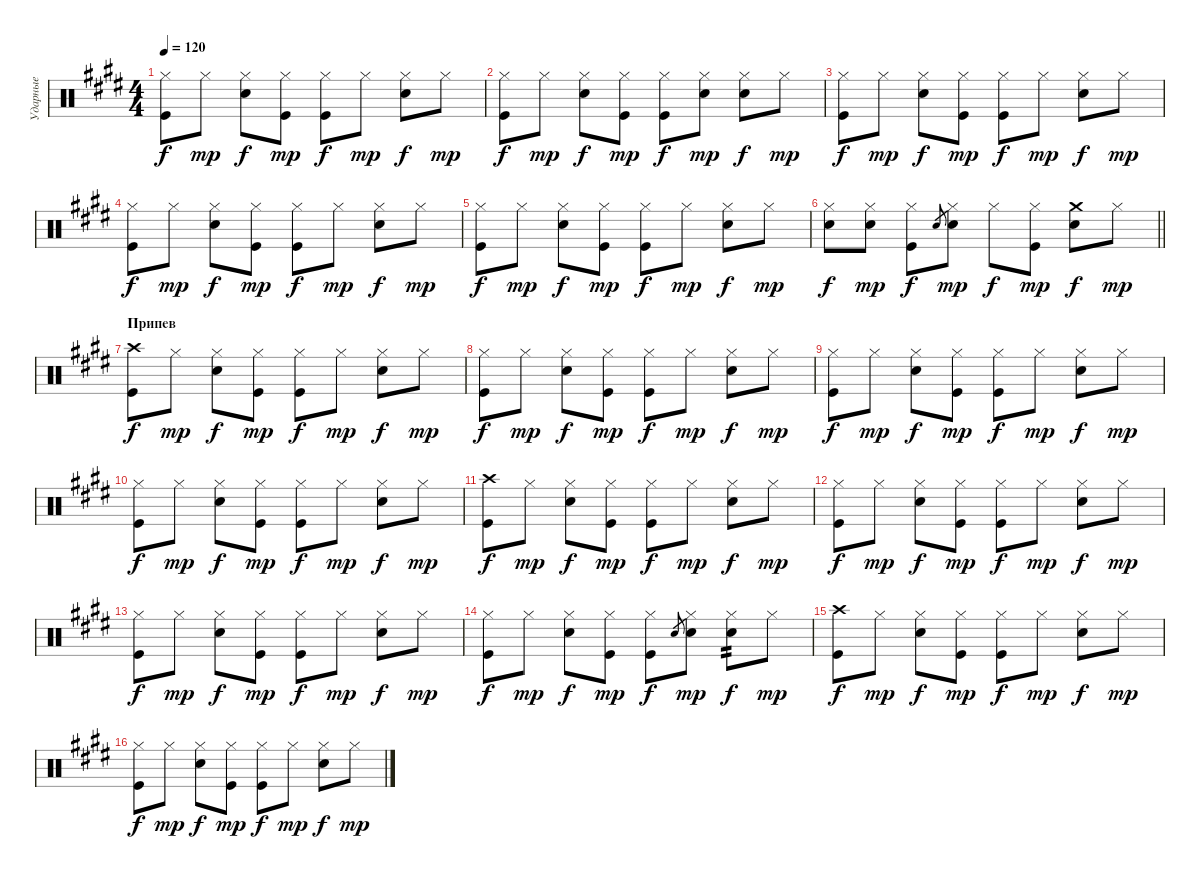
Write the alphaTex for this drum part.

\track ("Ударные" "Ударные") {instrument percussion}
\staff {score}
\articulation defaults
\ts (4 4)
\tempo 120
\clef neutral
\ks e
("Hi-Hat (closed)" "Kick (hit)").8{dy f} "Hi-Hat (closed)".8{dy mp} ("Hi-Hat (closed)" "Snare (hit) 2").8{dy f} ("Hi-Hat (closed)" "Kick (hit)").8{dy mp} ("Hi-Hat (closed)" "Kick (hit)").8{dy f} "Hi-Hat (closed)".8{dy mp} ("Hi-Hat (closed)" "Snare (hit) 2").8{dy f} "Hi-Hat (closed)".8{dy mp} |
("Hi-Hat (closed)" "Kick (hit)").8{dy f} "Hi-Hat (closed)".8{dy mp} ("Hi-Hat (closed)" "Snare (hit) 2").8{dy f} ("Hi-Hat (closed)" "Kick (hit)").8{dy mp} ("Hi-Hat (closed)" "Kick (hit)").8{dy f} ("Hi-Hat (closed)" "Snare (hit) 2").8{dy mp} ("Hi-Hat (closed)" "Snare (hit) 2").8{dy f} "Hi-Hat (closed)".8{dy mp} |
("Hi-Hat (closed)" "Kick (hit)").8{dy f} "Hi-Hat (closed)".8{dy mp} ("Hi-Hat (closed)" "Snare (hit) 2").8{dy f} ("Hi-Hat (closed)" "Kick (hit)").8{dy mp} ("Hi-Hat (closed)" "Kick (hit)").8{dy f} "Hi-Hat (closed)".8{dy mp} ("Hi-Hat (closed)" "Snare (hit) 2").8{dy f} "Hi-Hat (closed)".8{dy mp} |
("Hi-Hat (closed)" "Kick (hit)").8{dy f} "Hi-Hat (closed)".8{dy mp} ("Hi-Hat (closed)" "Snare (hit) 2").8{dy f} ("Hi-Hat (closed)" "Kick (hit)").8{dy mp} ("Hi-Hat (closed)" "Kick (hit)").8{dy f} "Hi-Hat (closed)".8{dy mp} ("Hi-Hat (closed)" "Snare (hit) 2").8{dy f} "Hi-Hat (closed)".8{dy mp} |
("Hi-Hat (closed)" "Kick (hit)").8{dy f} "Hi-Hat (closed)".8{dy mp} ("Hi-Hat (closed)" "Snare (hit) 2").8{dy f} ("Hi-Hat (closed)" "Kick (hit)").8{dy mp} ("Hi-Hat (closed)" "Kick (hit)").8{dy f} "Hi-Hat (closed)".8{dy mp} ("Hi-Hat (closed)" "Snare (hit) 2").8{dy f} "Hi-Hat (closed)".8{dy mp} |
\barLineRight lightlight
("Hi-Hat (closed)" "Snare (hit) 2").8{dy f} ("Hi-Hat (closed)" "Snare (hit) 2").8{dy mp} ("Hi-Hat (closed)" "Kick (hit)").8{dy f} "Snare (hit) 2".8{gr} ("Hi-Hat (closed)" "Snare (hit) 2").8{dy mp} "Hi-Hat (closed)".8{dy f} ("Hi-Hat (closed)" "Kick (hit)").8{dy mp} ("Crash medium (hit)" "Snare (hit) 2").8{dy f} "Hi-Hat (closed)".8{dy mp} |
\section ("" "Припев")
("Crash high (hit)" "Kick (hit)").8{dy f} "Hi-Hat (closed)".8{dy mp} ("Hi-Hat (closed)" "Snare (hit) 2").8{dy f} ("Hi-Hat (closed)" "Kick (hit)").8{dy mp} ("Hi-Hat (closed)" "Kick (hit)").8{dy f} "Hi-Hat (closed)".8{dy mp} ("Hi-Hat (closed)" "Snare (hit) 2").8{dy f} "Hi-Hat (closed)".8{dy mp} |
("Hi-Hat (closed)" "Kick (hit)").8{dy f} "Hi-Hat (closed)".8{dy mp} ("Hi-Hat (closed)" "Snare (hit) 2").8{dy f} ("Hi-Hat (closed)" "Kick (hit)").8{dy mp} ("Hi-Hat (closed)" "Kick (hit)").8{dy f} "Hi-Hat (closed)".8{dy mp} ("Hi-Hat (closed)" "Snare (hit) 2").8{dy f} "Hi-Hat (closed)".8{dy mp} |
("Hi-Hat (closed)" "Kick (hit)").8{dy f} "Hi-Hat (closed)".8{dy mp} ("Hi-Hat (closed)" "Snare (hit) 2").8{dy f} ("Hi-Hat (closed)" "Kick (hit)").8{dy mp} ("Hi-Hat (closed)" "Kick (hit)").8{dy f} "Hi-Hat (closed)".8{dy mp} ("Hi-Hat (closed)" "Snare (hit) 2").8{dy f} "Hi-Hat (closed)".8{dy mp} |
("Hi-Hat (closed)" "Kick (hit)").8{dy f} "Hi-Hat (closed)".8{dy mp} ("Hi-Hat (closed)" "Snare (hit) 2").8{dy f} ("Hi-Hat (closed)" "Kick (hit)").8{dy mp} ("Hi-Hat (closed)" "Kick (hit)").8{dy f} "Hi-Hat (closed)".8{dy mp} ("Hi-Hat (closed)" "Snare (hit) 2").8{dy f} "Hi-Hat (closed)".8{dy mp} |
("Crash high (hit)" "Kick (hit)").8{dy f} "Hi-Hat (closed)".8{dy mp} ("Hi-Hat (closed)" "Snare (hit) 2").8{dy f} ("Hi-Hat (closed)" "Kick (hit)").8{dy mp} ("Hi-Hat (closed)" "Kick (hit)").8{dy f} "Hi-Hat (closed)".8{dy mp} ("Hi-Hat (closed)" "Snare (hit) 2").8{dy f} "Hi-Hat (closed)".8{dy mp} |
("Hi-Hat (closed)" "Kick (hit)").8{dy f} "Hi-Hat (closed)".8{dy mp} ("Hi-Hat (closed)" "Snare (hit) 2").8{dy f} ("Hi-Hat (closed)" "Kick (hit)").8{dy mp} ("Hi-Hat (closed)" "Kick (hit)").8{dy f} "Hi-Hat (closed)".8{dy mp} ("Hi-Hat (closed)" "Snare (hit) 2").8{dy f} "Hi-Hat (closed)".8{dy mp} |
("Hi-Hat (closed)" "Kick (hit)").8{dy f} "Hi-Hat (closed)".8{dy mp} ("Hi-Hat (closed)" "Snare (hit) 2").8{dy f} ("Hi-Hat (closed)" "Kick (hit)").8{dy mp} ("Hi-Hat (closed)" "Kick (hit)").8{dy f} "Hi-Hat (closed)".8{dy mp} ("Hi-Hat (closed)" "Snare (hit) 2").8{dy f} "Hi-Hat (closed)".8{dy mp} |
("Hi-Hat (closed)" "Kick (hit)").8{dy f} "Hi-Hat (closed)".8{dy mp} ("Hi-Hat (closed)" "Snare (hit) 2").8{dy f} ("Hi-Hat (closed)" "Kick (hit)").8{dy mp} ("Hi-Hat (closed)" "Kick (hit)").8{dy f} "Snare (hit) 2".8{gr} ("Hi-Hat (closed)" "Snare (hit) 2").8{dy mp} ("Hi-Hat (closed)" "Snare (hit) 2").8{tp 2 dy f} "Hi-Hat (closed)".8{dy mp} |
("Crash high (hit)" "Kick (hit)").8{dy f} "Hi-Hat (closed)".8{dy mp} ("Hi-Hat (closed)" "Snare (hit) 2").8{dy f} ("Hi-Hat (closed)" "Kick (hit)").8{dy mp} ("Hi-Hat (closed)" "Kick (hit)").8{dy f} "Hi-Hat (closed)".8{dy mp} ("Hi-Hat (closed)" "Snare (hit) 2").8{dy f} "Hi-Hat (closed)".8{dy mp} |
("Hi-Hat (closed)" "Kick (hit)").8{dy f} "Hi-Hat (closed)".8{dy mp} ("Hi-Hat (closed)" "Snare (hit) 2").8{dy f} ("Hi-Hat (closed)" "Kick (hit)").8{dy mp} ("Hi-Hat (closed)" "Kick (hit)").8{dy f} "Hi-Hat (closed)".8{dy mp} ("Hi-Hat (closed)" "Snare (hit) 2").8{dy f} "Hi-Hat (closed)".8{dy mp}
